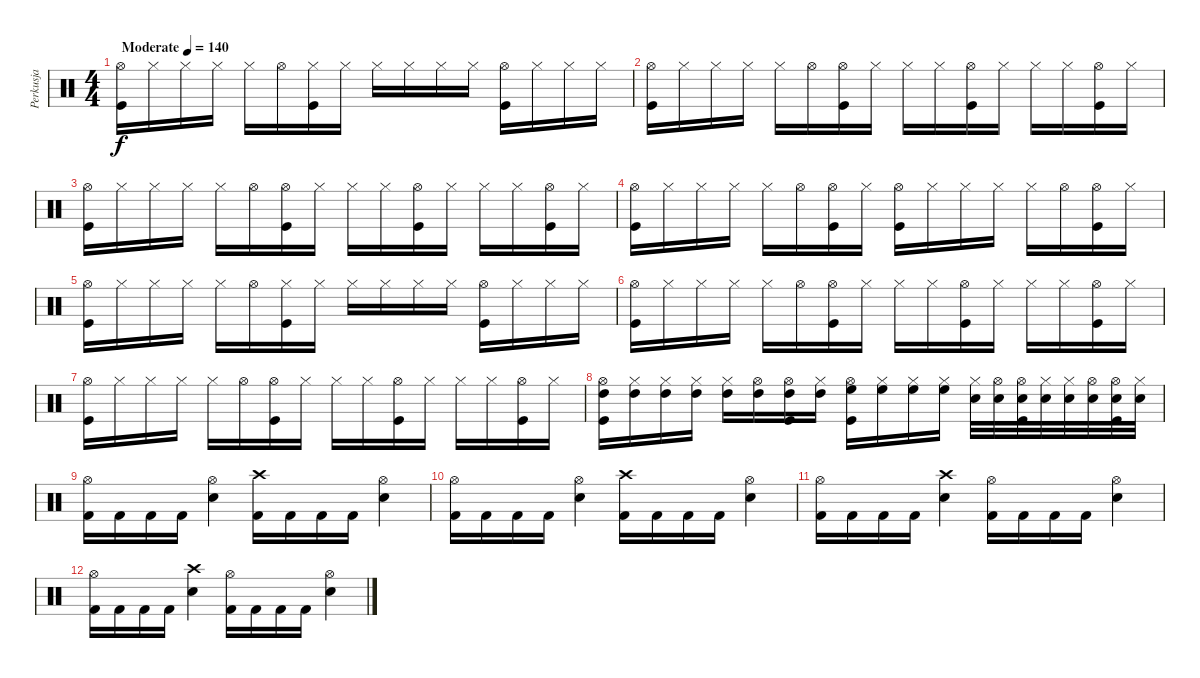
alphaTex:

\track ("Perkusja" "Perkusja") {instrument percussion}
\staff {score}
\articulation defaults
\ts (4 4)
\tempo (140 "Moderate")
\clef neutral
\ks c
("Hi-Hat (open)" "Kick (hit)").16{dy f} "Hi-Hat (closed)".16 "Hi-Hat (closed)".16 "Hi-Hat (closed)".16 "Hi-Hat (closed)".16 "Hi-Hat (open)".16 ("Hi-Hat (closed)" "Kick (hit)").16 "Hi-Hat (closed)".16 "Hi-Hat (closed)".16 "Hi-Hat (closed)".16 "Hi-Hat (closed)".16 "Hi-Hat (closed)".16 ("Hi-Hat (open)" "Kick (hit)").16 "Hi-Hat (closed)".16 "Hi-Hat (closed)".16 "Hi-Hat (closed)".16 |
("Hi-Hat (open)" "Kick (hit)").16 "Hi-Hat (closed)".16 "Hi-Hat (closed)".16 "Hi-Hat (closed)".16 "Hi-Hat (closed)".16 "Hi-Hat (open)".16 ("Hi-Hat (open)" "Kick (hit)").16 "Hi-Hat (closed)".16 "Hi-Hat (closed)".16 "Hi-Hat (closed)".16 ("Hi-Hat (open)" "Kick (hit)").16 "Hi-Hat (closed)".16 "Hi-Hat (closed)".16 "Hi-Hat (closed)".16 ("Hi-Hat (open)" "Kick (hit)").16 "Hi-Hat (closed)".16 |
("Hi-Hat (open)" "Kick (hit)").16 "Hi-Hat (closed)".16 "Hi-Hat (closed)".16 "Hi-Hat (closed)".16 "Hi-Hat (closed)".16 "Hi-Hat (open)".16 ("Hi-Hat (open)" "Kick (hit)").16 "Hi-Hat (closed)".16 "Hi-Hat (closed)".16 "Hi-Hat (closed)".16 ("Hi-Hat (open)" "Kick (hit)").16 "Hi-Hat (closed)".16 "Hi-Hat (closed)".16 "Hi-Hat (closed)".16 ("Hi-Hat (open)" "Kick (hit)").16 "Hi-Hat (closed)".16 |
("Hi-Hat (open)" "Kick (hit)").16 "Hi-Hat (closed)".16 "Hi-Hat (closed)".16 "Hi-Hat (closed)".16 "Hi-Hat (closed)".16 "Hi-Hat (open)".16 ("Hi-Hat (open)" "Kick (hit)").16 "Hi-Hat (closed)".16 ("Hi-Hat (open)" "Kick (hit)").16 "Hi-Hat (closed)".16 "Hi-Hat (closed)".16 "Hi-Hat (closed)".16 "Hi-Hat (closed)".16 "Hi-Hat (open)".16 ("Hi-Hat (open)" "Kick (hit)").16 "Hi-Hat (closed)".16 |
("Hi-Hat (open)" "Kick (hit)").16 "Hi-Hat (closed)".16 "Hi-Hat (closed)".16 "Hi-Hat (closed)".16 "Hi-Hat (closed)".16 "Hi-Hat (open)".16 ("Hi-Hat (closed)" "Kick (hit)").16 "Hi-Hat (closed)".16 "Hi-Hat (closed)".16 "Hi-Hat (closed)".16 "Hi-Hat (closed)".16 "Hi-Hat (closed)".16 ("Hi-Hat (open)" "Kick (hit)").16 "Hi-Hat (closed)".16 "Hi-Hat (closed)".16 "Hi-Hat (closed)".16 |
("Hi-Hat (open)" "Kick (hit)").16 "Hi-Hat (closed)".16 "Hi-Hat (closed)".16 "Hi-Hat (closed)".16 "Hi-Hat (closed)".16 "Hi-Hat (open)".16 ("Hi-Hat (open)" "Kick (hit)").16 "Hi-Hat (closed)".16 "Hi-Hat (closed)".16 "Hi-Hat (closed)".16 ("Hi-Hat (open)" "Kick (hit)").16 "Hi-Hat (closed)".16 "Hi-Hat (closed)".16 "Hi-Hat (closed)".16 ("Hi-Hat (open)" "Kick (hit)").16 "Hi-Hat (closed)".16 |
("Hi-Hat (open)" "Kick (hit)").16 "Hi-Hat (closed)".16 "Hi-Hat (closed)".16 "Hi-Hat (closed)".16 "Hi-Hat (closed)".16 "Hi-Hat (open)".16 ("Hi-Hat (open)" "Kick (hit)").16 "Hi-Hat (closed)".16 "Hi-Hat (closed)".16 "Hi-Hat (closed)".16 ("Hi-Hat (open)" "Kick (hit)").16 "Hi-Hat (closed)".16 "Hi-Hat (closed)".16 "Hi-Hat (closed)".16 ("Hi-Hat (open)" "Kick (hit)").16 "Hi-Hat (closed)".16 |
("High Tom (hit)" "Hi-Hat (open)" "Kick (hit)").16 ("High Tom (hit)" "Hi-Hat (closed)").16 ("High Tom (hit)" "Hi-Hat (closed)").16 ("High Tom (hit)" "Hi-Hat (closed)").16 ("High Tom (hit)" "Hi-Hat (closed)").16 ("High Tom (hit)" "Hi-Hat (open)").16 ("High Tom (hit)" "Hi-Hat (open)" "Kick (hit)").16 ("High Tom (hit)" "Hi-Hat (closed)").16 ("High Floor Tom (hit)" "Hi-Hat (open)" "Kick (hit)").16 ("High Floor Tom (hit)" "Hi-Hat (closed)").16 ("High Floor Tom (hit)" "Hi-Hat (closed)").16 ("High Floor Tom (hit)" "Hi-Hat (closed)").16 ("Snare (hit) 2" "Hi-Hat (closed)").32 ("Snare (hit) 2" "Hi-Hat (open)").32 ("Snare (hit) 2" "Hi-Hat (open)" "Kick (hit)").32 ("Snare (hit) 2" "Hi-Hat (closed)").32 ("Snare (hit) 2" "Hi-Hat (closed)").32 ("Snare (hit) 2" "Hi-Hat (open)").32 ("Snare (hit) 2" "Hi-Hat (open)" "Kick (hit)").32 ("Snare (hit) 2" "Hi-Hat (closed)").32 |
("Hi-Hat (open)" "Kick (hit) 2").16 "Kick (hit) 2".16 "Kick (hit) 2".16 "Kick (hit) 2".16 ("Hi-Hat (open)" "Electric Snare (hit)").4 ("Crash high (hit)" "Kick (hit) 2").16 "Kick (hit) 2".16 "Kick (hit) 2".16 "Kick (hit) 2".16 ("Hi-Hat (open)" "Electric Snare (hit)").4 |
("Hi-Hat (open)" "Kick (hit) 2").16 "Kick (hit) 2".16 "Kick (hit) 2".16 "Kick (hit) 2".16 ("Hi-Hat (open)" "Electric Snare (hit)").4 ("Crash high (hit)" "Kick (hit) 2").16 "Kick (hit) 2".16 "Kick (hit) 2".16 "Kick (hit) 2".16 ("Hi-Hat (open)" "Electric Snare (hit)").4 |
("Hi-Hat (open)" "Kick (hit) 2").16 "Kick (hit) 2".16 "Kick (hit) 2".16 "Kick (hit) 2".16 ("Crash high (hit)" "Electric Snare (hit)").4 ("Hi-Hat (open)" "Kick (hit) 2").16 "Kick (hit) 2".16 "Kick (hit) 2".16 "Kick (hit) 2".16 ("Hi-Hat (open)" "Electric Snare (hit)").4 |
("Hi-Hat (open)" "Kick (hit) 2").16 "Kick (hit) 2".16 "Kick (hit) 2".16 "Kick (hit) 2".16 ("Crash high (hit)" "Electric Snare (hit)").4 ("Hi-Hat (open)" "Kick (hit) 2").16 "Kick (hit) 2".16 "Kick (hit) 2".16 "Kick (hit) 2".16 ("Hi-Hat (open)" "Electric Snare (hit)").4
